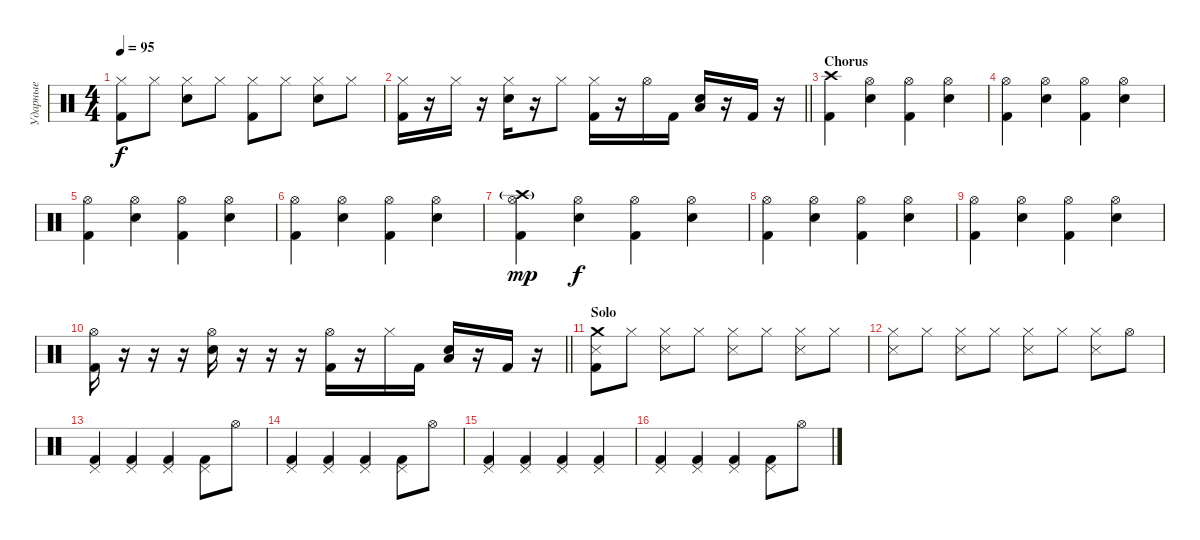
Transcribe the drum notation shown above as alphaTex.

\track ("Ударные" "Ударные") {instrument percussion}
\staff {score}
\articulation defaults
\ts (4 4)
\tempo 95
\clef neutral
\ks c
("Hi-Hat (closed)" "Kick (hit) 2").8{dy f} "Hi-Hat (closed)".8 ("Hi-Hat (closed)" "Electric Snare (hit)").8 "Hi-Hat (closed)".8 ("Hi-Hat (closed)" "Kick (hit) 2").8 "Hi-Hat (closed)".8 ("Hi-Hat (closed)" "Electric Snare (hit)").8 "Hi-Hat (closed)".8 |
\barLineRight lightlight
("Hi-Hat (closed)" "Kick (hit) 2").16 r.16 "Hi-Hat (closed)".16 r.16 ("Hi-Hat (closed)" "Electric Snare (hit)").16 r.16 "Hi-Hat (closed)".8 ("Hi-Hat (closed)" "Kick (hit) 2").16 r.16 "Hi-Hat (open)".16 "Kick (hit) 2".16 ("Low Floor Tom (hit)" "Electric Snare (hit)").16 r.16 "Kick (hit) 2".16 r.16 |
\section ("" "Chorus")
("Crash high (hit)" "Kick (hit) 2").4 ("Hi-Hat (open)" "Electric Snare (hit)").4 ("Hi-Hat (open)" "Kick (hit) 2").4 ("Hi-Hat (open)" "Electric Snare (hit)").4 |
("Hi-Hat (open)" "Kick (hit) 2").4 ("Hi-Hat (open)" "Electric Snare (hit)").4 ("Hi-Hat (open)" "Kick (hit) 2").4 ("Hi-Hat (open)" "Electric Snare (hit)").4 |
("Hi-Hat (open)" "Kick (hit) 2").4 ("Hi-Hat (open)" "Electric Snare (hit)").4 ("Hi-Hat (open)" "Kick (hit) 2").4 ("Hi-Hat (open)" "Electric Snare (hit)").4 |
("Hi-Hat (open)" "Kick (hit) 2").4 ("Hi-Hat (open)" "Electric Snare (hit)").4 ("Hi-Hat (open)" "Kick (hit) 2").4 ("Hi-Hat (open)" "Electric Snare (hit)").4 |
("Crash high (hit)"{g} "Hi-Hat (open)" "Kick (hit) 2").4{dy mp} ("Hi-Hat (open)" "Electric Snare (hit)").4{dy f} ("Hi-Hat (open)" "Kick (hit) 2").4 ("Hi-Hat (open)" "Electric Snare (hit)").4 |
("Hi-Hat (open)" "Kick (hit) 2").4 ("Hi-Hat (open)" "Electric Snare (hit)").4 ("Hi-Hat (open)" "Kick (hit) 2").4 ("Hi-Hat (open)" "Electric Snare (hit)").4 |
("Hi-Hat (open)" "Kick (hit) 2").4 ("Hi-Hat (open)" "Electric Snare (hit)").4 ("Hi-Hat (open)" "Kick (hit) 2").4 ("Hi-Hat (open)" "Electric Snare (hit)").4 |
\barLineRight lightlight
("Hi-Hat (open)" "Kick (hit) 2").16 r.16 r.16 r.16 ("Hi-Hat (open)" "Electric Snare (hit)").16 r.16 r.16 r.16 ("Hi-Hat (open)" "Kick (hit) 2").16 r.16 "Hi-Hat (closed)".16 "Kick (hit) 2".16 ("Low Floor Tom (hit)" "Electric Snare (hit)").16 r.16 "Kick (hit) 2".16 r.16 |
\section ("" "Solo")
("Crash medium (hit)" "Snare (side stick) 3" "Kick (hit) 2").8 "Hi-Hat (closed)".8 ("Hi-Hat (closed)" "Snare (side stick) 3").8 "Hi-Hat (closed)".8 ("Hi-Hat (closed)" "Snare (side stick) 3").8 "Hi-Hat (closed)".8 ("Hi-Hat (closed)" "Snare (side stick) 3").8 "Hi-Hat (closed)".8 |
("Hi-Hat (closed)" "Snare (side stick) 3").8 "Hi-Hat (closed)".8 ("Hi-Hat (closed)" "Snare (side stick) 3").8 "Hi-Hat (closed)".8 ("Hi-Hat (closed)" "Snare (side stick) 3").8 "Hi-Hat (closed)".8 ("Hi-Hat (closed)" "Snare (side stick) 3").8 "Hi-Hat (open)".8 |
("Pedal Hi-Hat (hit)" "Kick (hit) 2").4 ("Pedal Hi-Hat (hit)" "Kick (hit) 2").4 ("Pedal Hi-Hat (hit)" "Kick (hit) 2").4 ("Pedal Hi-Hat (hit)" "Kick (hit) 2").8 "Hi-Hat (open)".8 |
("Pedal Hi-Hat (hit)" "Kick (hit) 2").4 ("Pedal Hi-Hat (hit)" "Kick (hit) 2").4 ("Pedal Hi-Hat (hit)" "Kick (hit) 2").4 ("Pedal Hi-Hat (hit)" "Kick (hit) 2").8 "Hi-Hat (open)".8 |
("Pedal Hi-Hat (hit)" "Kick (hit) 2").4 ("Pedal Hi-Hat (hit)" "Kick (hit) 2").4 ("Pedal Hi-Hat (hit)" "Kick (hit) 2").4 ("Pedal Hi-Hat (hit)" "Kick (hit) 2").4 |
("Pedal Hi-Hat (hit)" "Kick (hit) 2").4 ("Pedal Hi-Hat (hit)" "Kick (hit) 2").4 ("Pedal Hi-Hat (hit)" "Kick (hit) 2").4 ("Pedal Hi-Hat (hit)" "Kick (hit) 2").8 "Hi-Hat (open)".8
